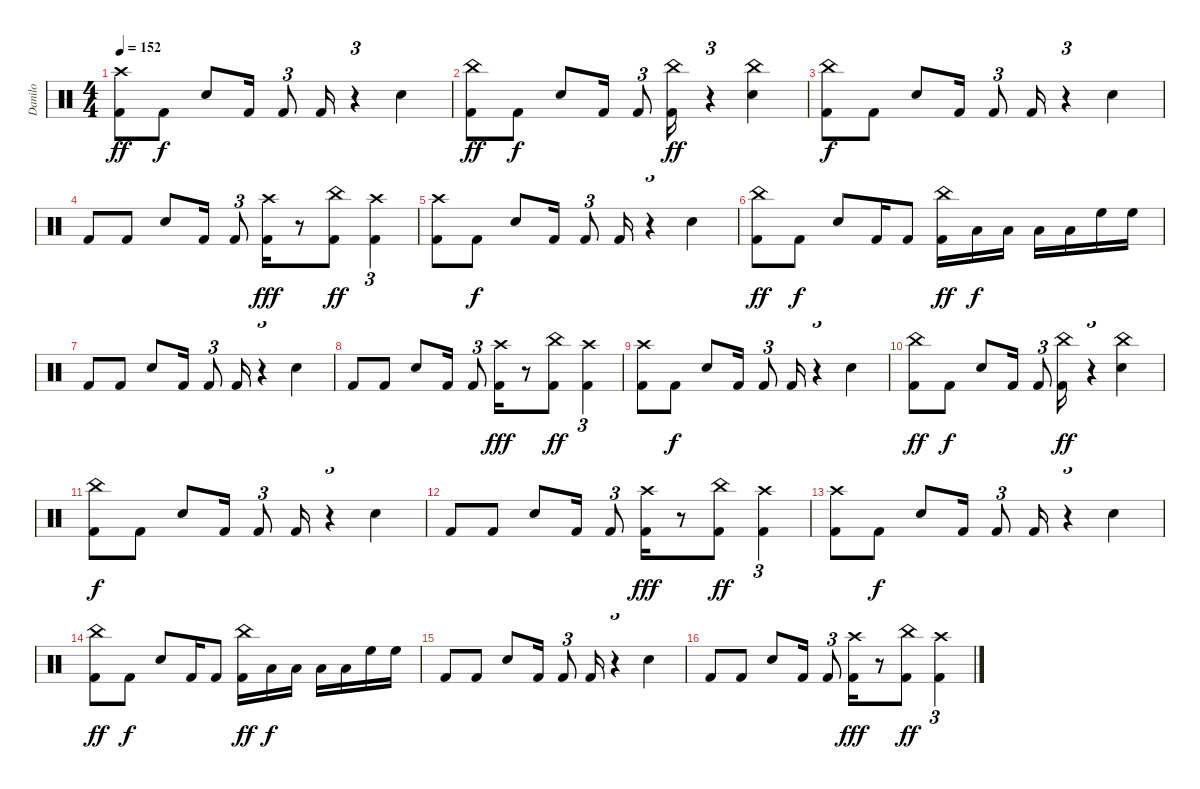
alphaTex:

\track ("Danilo" "Danilo") {instrument percussion}
\staff {score}
\articulation defaults
\ts (4 4)
\tempo 152
\clef neutral
\ks c
("Crash high (hit)" "Kick (hit) 2").8{dy ff} "Kick (hit) 2".8{dy f} "Snare (hit) 2".8 "Kick (hit) 2".16 "Kick (hit) 2".8{tu (3 2)} "Kick (hit) 2".16 r.4{tu (3 2)} "Snare (hit) 2".4 |
("China (hit)" "Kick (hit) 2").8{dy ff} "Kick (hit) 2".8{dy f} "Snare (hit) 2".8 "Kick (hit) 2".16 "Kick (hit) 2".8{tu (3 2)} ("China (hit)" "Kick (hit) 2").16{dy ff} r.4{tu (3 2)} ("Snare (hit) 2" "China (hit)").4 |
("China (hit)" "Kick (hit) 2").8{dy f} "Kick (hit) 2".8 "Snare (hit) 2".8 "Kick (hit) 2".16 "Kick (hit) 2".8{tu (3 2)} "Kick (hit) 2".16 r.4{tu (3 2)} "Snare (hit) 2".4 |
"Kick (hit) 2".8 "Kick (hit) 2".8 "Snare (hit) 2".8 "Kick (hit) 2".16 "Kick (hit) 2".8{tu (3 2)} ("Crash high (hit)" "Kick (hit) 2").16{dy fff} r.8 ("China (hit)" "Kick (hit) 2").8{dy ff} ("Crash high (hit)" "Kick (hit) 2").4{tu (3 2)} |
("Crash high (hit)" "Kick (hit) 2").8 "Kick (hit) 2".8{dy f} "Snare (hit) 2".8 "Kick (hit) 2".16 "Kick (hit) 2".8{tu (3 2)} "Kick (hit) 2".16 r.4{tu (3 2)} "Snare (hit) 2".4 |
("China (hit)" "Kick (hit) 2").8{dy ff} "Kick (hit) 2".8{dy f} "Snare (hit) 2".8 "Kick (hit) 2".16 "Kick (hit) 2".8 ("China (hit)" "Kick (hit) 2").16{dy ff} "Low Tom (hit)".16{dy f} "Low Tom (hit)".16 "Low Tom (hit)".16 "Low Tom (hit)".16 "High Floor Tom (hit)".16 "High Floor Tom (hit)".16 |
"Kick (hit) 2".8 "Kick (hit) 2".8 "Snare (hit) 2".8 "Kick (hit) 2".16 "Kick (hit) 2".8{tu (3 2)} "Kick (hit) 2".16 r.4{tu (3 2)} "Snare (hit) 2".4 |
"Kick (hit) 2".8 "Kick (hit) 2".8 "Snare (hit) 2".8 "Kick (hit) 2".16 "Kick (hit) 2".8{tu (3 2)} ("Crash high (hit)" "Kick (hit) 2").16{dy fff} r.8 ("China (hit)" "Kick (hit) 2").8{dy ff} ("Crash high (hit)" "Kick (hit) 2").4{tu (3 2)} |
("Crash high (hit)" "Kick (hit) 2").8 "Kick (hit) 2".8{dy f} "Snare (hit) 2".8 "Kick (hit) 2".16 "Kick (hit) 2".8{tu (3 2)} "Kick (hit) 2".16 r.4{tu (3 2)} "Snare (hit) 2".4 |
("China (hit)" "Kick (hit) 2").8{dy ff} "Kick (hit) 2".8{dy f} "Snare (hit) 2".8 "Kick (hit) 2".16 "Kick (hit) 2".8{tu (3 2)} ("China (hit)" "Kick (hit) 2").16{dy ff} r.4{tu (3 2)} ("Snare (hit) 2" "China (hit)").4 |
("China (hit)" "Kick (hit) 2").8{dy f} "Kick (hit) 2".8 "Snare (hit) 2".8 "Kick (hit) 2".16 "Kick (hit) 2".8{tu (3 2)} "Kick (hit) 2".16 r.4{tu (3 2)} "Snare (hit) 2".4 |
"Kick (hit) 2".8 "Kick (hit) 2".8 "Snare (hit) 2".8 "Kick (hit) 2".16 "Kick (hit) 2".8{tu (3 2)} ("Crash high (hit)" "Kick (hit) 2").16{dy fff} r.8 ("China (hit)" "Kick (hit) 2").8{dy ff} ("Crash high (hit)" "Kick (hit) 2").4{tu (3 2)} |
("Crash high (hit)" "Kick (hit) 2").8 "Kick (hit) 2".8{dy f} "Snare (hit) 2".8 "Kick (hit) 2".16 "Kick (hit) 2".8{tu (3 2)} "Kick (hit) 2".16 r.4{tu (3 2)} "Snare (hit) 2".4 |
("China (hit)" "Kick (hit) 2").8{dy ff} "Kick (hit) 2".8{dy f} "Snare (hit) 2".8 "Kick (hit) 2".16 "Kick (hit) 2".8 ("China (hit)" "Kick (hit) 2").16{dy ff} "Low Tom (hit)".16{dy f} "Low Tom (hit)".16 "Low Tom (hit)".16 "Low Tom (hit)".16 "High Floor Tom (hit)".16 "High Floor Tom (hit)".16 |
"Kick (hit) 2".8 "Kick (hit) 2".8 "Snare (hit) 2".8 "Kick (hit) 2".16 "Kick (hit) 2".8{tu (3 2)} "Kick (hit) 2".16 r.4{tu (3 2)} "Snare (hit) 2".4 |
"Kick (hit) 2".8 "Kick (hit) 2".8 "Snare (hit) 2".8 "Kick (hit) 2".16 "Kick (hit) 2".8{tu (3 2)} ("Crash high (hit)" "Kick (hit) 2").16{dy fff} r.8 ("China (hit)" "Kick (hit) 2").8{dy ff} ("Crash high (hit)" "Kick (hit) 2").4{tu (3 2)}
